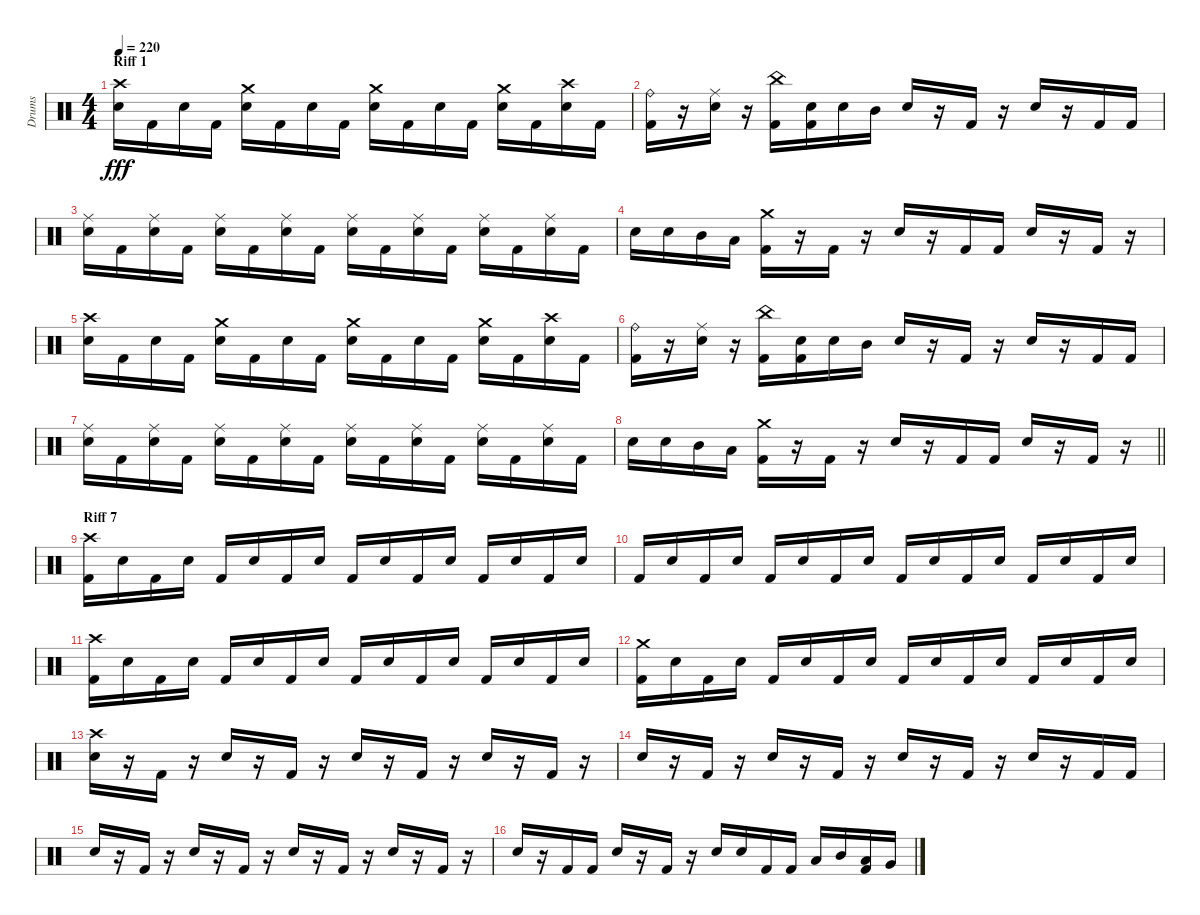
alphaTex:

\track ("Drums" "Drums") {instrument percussion}
\staff {score}
\articulation defaults
\ts (4 4)
\section ("" "Riff 1")
\tempo 220
\clef neutral
\ks c
("Crash high (hit)" "Snare (hit) 2").16{dy fff} "Kick (hit) 2".16 "Snare (hit) 2".16 "Kick (hit) 2".16 ("Crash medium (hit)" "Snare (hit) 2").16 "Kick (hit) 2".16 "Snare (hit) 2".16 "Kick (hit) 2".16 ("Crash medium (hit)" "Snare (hit) 2").16 "Kick (hit) 2".16 "Snare (hit) 2".16 "Kick (hit) 2".16 ("Crash medium (hit)" "Snare (hit) 2").16 "Kick (hit) 2".16 ("Crash high (hit)" "Snare (hit) 2").16 "Kick (hit) 2".16 |
("Kick (hit) 2" "Ride (bell)").16 r.16 ("Snare (hit) 2" "Ride (middle)").16 r.16 ("China (hit)" "Kick (hit) 2").16 ("Kick (hit) 2" "Snare (hit) 2").16 "Snare (hit) 2".16 "Mid Tom (hit)".16 "Snare (hit) 2".16 r.16 "Kick (hit) 2".16 r.16 "Snare (hit) 2".16 r.16 "Kick (hit) 2".16 "Kick (hit) 2".16 |
("Snare (hit) 2" "Ride (middle)").16 "Kick (hit) 2".16 ("Snare (hit) 2" "Ride (middle)").16 "Kick (hit) 2".16 ("Snare (hit) 2" "Ride (middle)").16 "Kick (hit) 2".16 ("Snare (hit) 2" "Ride (middle)").16 "Kick (hit) 2".16 ("Snare (hit) 2" "Ride (middle)").16 "Kick (hit) 2".16 ("Snare (hit) 2" "Ride (middle)").16 "Kick (hit) 2".16 ("Snare (hit) 2" "Ride (middle)").16 "Kick (hit) 2".16 ("Snare (hit) 2" "Ride (middle)").16 "Kick (hit) 2".16 |
"Snare (hit) 2".16 "Snare (hit) 2".16 "Mid Tom (hit)".16 "Low Tom (hit)".16 ("Crash medium (hit)" "Kick (hit) 2").16 r.16 "Kick (hit) 2".16 r.16 "Snare (hit) 2".16 r.16 "Kick (hit) 2".16 "Kick (hit) 2".16 "Snare (hit) 2".16 r.16 "Kick (hit) 2".16 r.16 |
("Crash high (hit)" "Snare (hit) 2").16 "Kick (hit) 2".16 "Snare (hit) 2".16 "Kick (hit) 2".16 ("Crash medium (hit)" "Snare (hit) 2").16 "Kick (hit) 2".16 "Snare (hit) 2".16 "Kick (hit) 2".16 ("Crash medium (hit)" "Snare (hit) 2").16 "Kick (hit) 2".16 "Snare (hit) 2".16 "Kick (hit) 2".16 ("Crash medium (hit)" "Snare (hit) 2").16 "Kick (hit) 2".16 ("Crash high (hit)" "Snare (hit) 2").16 "Kick (hit) 2".16 |
("Kick (hit) 2" "Ride (bell)").16 r.16 ("Snare (hit) 2" "Ride (middle)").16 r.16 ("China (hit)" "Kick (hit) 2").16 ("Kick (hit) 2" "Snare (hit) 2").16 "Snare (hit) 2".16 "Mid Tom (hit)".16 "Snare (hit) 2".16 r.16 "Kick (hit) 2".16 r.16 "Snare (hit) 2".16 r.16 "Kick (hit) 2".16 "Kick (hit) 2".16 |
("Snare (hit) 2" "Ride (middle)").16 "Kick (hit) 2".16 ("Snare (hit) 2" "Ride (middle)").16 "Kick (hit) 2".16 ("Snare (hit) 2" "Ride (middle)").16 "Kick (hit) 2".16 ("Snare (hit) 2" "Ride (middle)").16 "Kick (hit) 2".16 ("Snare (hit) 2" "Ride (middle)").16 "Kick (hit) 2".16 ("Snare (hit) 2" "Ride (middle)").16 "Kick (hit) 2".16 ("Snare (hit) 2" "Ride (middle)").16 "Kick (hit) 2".16 ("Snare (hit) 2" "Ride (middle)").16 "Kick (hit) 2".16 |
\barLineRight lightlight "Snare (hit) 2".16 "Snare (hit) 2".16 "Mid Tom (hit)".16 "Low Tom (hit)".16
("Crash medium (hit)" "Kick (hit) 2").16 r.16 "Kick (hit) 2".16 r.16 "Snare (hit) 2".16 r.16 "Kick (hit) 2".16 "Kick (hit) 2".16 "Snare (hit) 2".16 r.16 "Kick (hit) 2".16 r.16 |
\section ("" "Riff 7")
("Crash high (hit)" "Kick (hit) 2").16 "Snare (hit) 2".16 "Kick (hit) 2".16 "Snare (hit) 2".16 "Kick (hit) 2".16 "Snare (hit) 2".16 "Kick (hit) 2".16 "Snare (hit) 2".16 "Kick (hit) 2".16 "Snare (hit) 2".16 "Kick (hit) 2".16 "Snare (hit) 2".16 "Kick (hit) 2".16 "Snare (hit) 2".16 "Kick (hit) 2".16 "Snare (hit) 2".16 |
"Kick (hit) 2".16 "Snare (hit) 2".16 "Kick (hit) 2".16 "Snare (hit) 2".16 "Kick (hit) 2".16 "Snare (hit) 2".16 "Kick (hit) 2".16 "Snare (hit) 2".16 "Kick (hit) 2".16 "Snare (hit) 2".16 "Kick (hit) 2".16 "Snare (hit) 2".16 "Kick (hit) 2".16 "Snare (hit) 2".16 "Kick (hit) 2".16 "Snare (hit) 2".16 |
("Crash high (hit)" "Kick (hit) 2").16 "Snare (hit) 2".16 "Kick (hit) 2".16 "Snare (hit) 2".16 "Kick (hit) 2".16 "Snare (hit) 2".16 "Kick (hit) 2".16 "Snare (hit) 2".16 "Kick (hit) 2".16 "Snare (hit) 2".16 "Kick (hit) 2".16 "Snare (hit) 2".16 "Kick (hit) 2".16 "Snare (hit) 2".16 "Kick (hit) 2".16 "Snare (hit) 2".16 |
("Crash medium (hit)" "Kick (hit) 2").16 "Snare (hit) 2".16 "Kick (hit) 2".16 "Snare (hit) 2".16 "Kick (hit) 2".16 "Snare (hit) 2".16 "Kick (hit) 2".16 "Snare (hit) 2".16 "Kick (hit) 2".16 "Snare (hit) 2".16 "Kick (hit) 2".16 "Snare (hit) 2".16 "Kick (hit) 2".16 "Snare (hit) 2".16 "Kick (hit) 2".16 "Snare (hit) 2".16 |
("Crash high (hit)" "Snare (hit) 2").16 r.16 "Kick (hit) 2".16 r.16 "Snare (hit) 2".16 r.16 "Kick (hit) 2".16 r.16 "Snare (hit) 2".16 r.16 "Kick (hit) 2".16 r.16 "Snare (hit) 2".16 r.16 "Kick (hit) 2".16 r.16 |
"Snare (hit) 2".16 r.16 "Kick (hit) 2".16 r.16 "Snare (hit) 2".16 r.16 "Kick (hit) 2".16 r.16 "Snare (hit) 2".16 r.16 "Kick (hit) 2".16 r.16 "Snare (hit) 2".16 r.16 "Kick (hit) 2".16 "Kick (hit) 2".16 |
"Snare (hit) 2".16 r.16 "Kick (hit) 2".16 r.16 "Snare (hit) 2".16 r.16 "Kick (hit) 2".16 r.16 "Snare (hit) 2".16 r.16 "Kick (hit) 2".16 r.16 "Snare (hit) 2".16 r.16 "Kick (hit) 2".16 r.16 |
"Snare (hit) 2".16 r.16 "Kick (hit) 2".16 "Kick (hit) 2".16 "Snare (hit) 2".16 r.16 "Kick (hit) 2".16 r.16 "Snare (hit) 2".16 "Snare (hit) 2".16 "Kick (hit) 2".16 "Kick (hit) 2".16 "Low Tom (hit)".16 "Mid Tom (hit)".16 ("Kick (hit) 2" "Low Tom (hit)").16 "Very Low Tom (hit)".16
